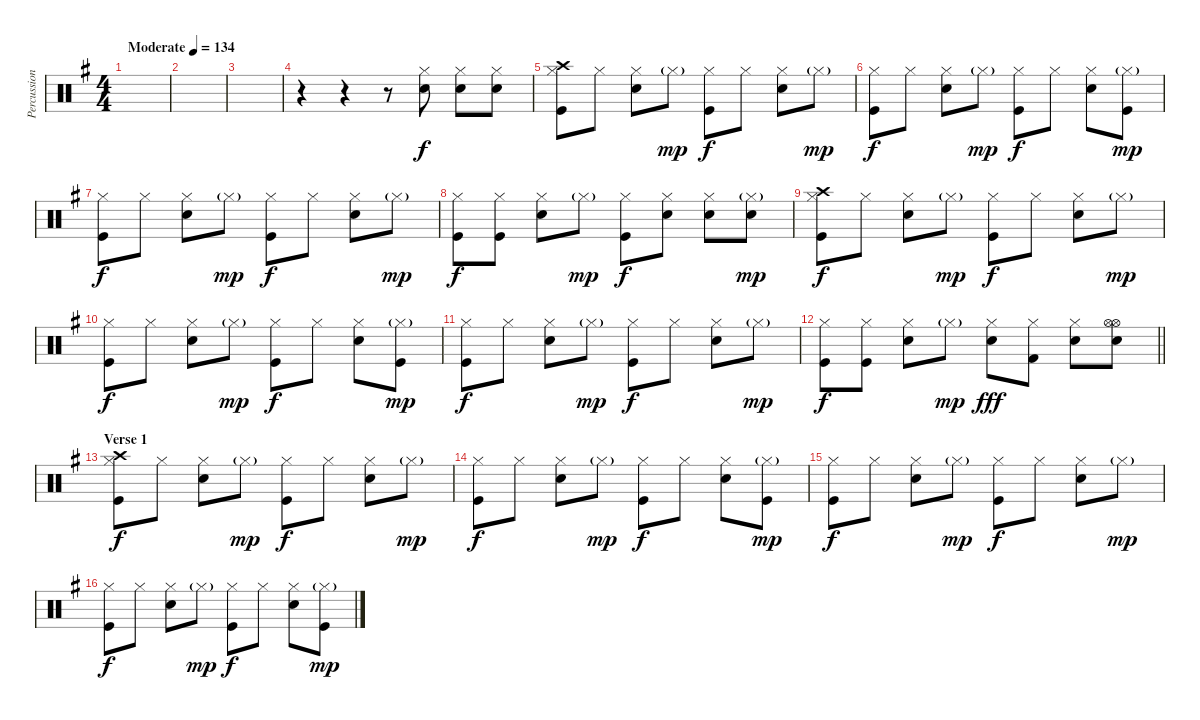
\track ("Percussion" "Percussion") {instrument percussion}
\staff {score}
\articulation defaults
\ts (4 4)
\tempo (134 "Moderate")
\clef neutral
\ks g
|
|
|
r.4 r.4 r.8 ("Hi-Hat (closed)" "Snare (hit) 2").8 ("Hi-Hat (closed)" "Snare (hit) 2").8 ("Hi-Hat (closed)" "Snare (hit) 2").8 |
("Hi-Hat (closed)" "Crash high (hit)" "Kick (hit)").8 "Hi-Hat (closed)".8 ("Hi-Hat (closed)" "Snare (hit) 2").8 "Hi-Hat (closed)"{g}.8{dy mp} ("Hi-Hat (closed)" "Kick (hit)").8{dy f} "Hi-Hat (closed)".8 ("Hi-Hat (closed)" "Snare (hit) 2").8 "Hi-Hat (closed)"{g}.8{dy mp} |
("Hi-Hat (closed)" "Kick (hit)").8{dy f} "Hi-Hat (closed)".8 ("Hi-Hat (closed)" "Snare (hit) 2").8 "Hi-Hat (closed)"{g}.8{dy mp} ("Hi-Hat (closed)" "Kick (hit)").8{dy f} "Hi-Hat (closed)".8 ("Hi-Hat (closed)" "Snare (hit) 2").8 ("Hi-Hat (closed)"{g} "Kick (hit)").8{dy mp} |
("Hi-Hat (closed)" "Kick (hit)").8{dy f} "Hi-Hat (closed)".8 ("Hi-Hat (closed)" "Snare (hit) 2").8 "Hi-Hat (closed)"{g}.8{dy mp} ("Hi-Hat (closed)" "Kick (hit)").8{dy f} "Hi-Hat (closed)".8 ("Hi-Hat (closed)" "Snare (hit) 2").8 "Hi-Hat (closed)"{g}.8{dy mp} |
("Hi-Hat (closed)" "Kick (hit)").8{dy f} ("Hi-Hat (closed)" "Kick (hit)").8 ("Hi-Hat (closed)" "Snare (hit) 2").8 "Hi-Hat (closed)"{g}.8{dy mp} ("Hi-Hat (closed)" "Kick (hit)").8{dy f} ("Hi-Hat (closed)" "Snare (hit) 2").8 ("Hi-Hat (closed)" "Snare (hit) 2").8 ("Hi-Hat (closed)"{g} "Snare (hit) 2").8{dy mp} |
("Hi-Hat (closed)" "Crash high (hit)" "Kick (hit)").8{dy f} "Hi-Hat (closed)".8 ("Hi-Hat (closed)" "Snare (hit) 2").8 "Hi-Hat (closed)"{g}.8{dy mp} ("Hi-Hat (closed)" "Kick (hit)").8{dy f} "Hi-Hat (closed)".8 ("Hi-Hat (closed)" "Snare (hit) 2").8 "Hi-Hat (closed)"{g}.8{dy mp} |
("Hi-Hat (closed)" "Kick (hit)").8{dy f} "Hi-Hat (closed)".8 ("Hi-Hat (closed)" "Snare (hit) 2").8 "Hi-Hat (closed)"{g}.8{dy mp} ("Hi-Hat (closed)" "Kick (hit)").8{dy f} "Hi-Hat (closed)".8 ("Hi-Hat (closed)" "Snare (hit) 2").8 ("Hi-Hat (closed)"{g} "Kick (hit)").8{dy mp} |
("Hi-Hat (closed)" "Kick (hit)").8{dy f} "Hi-Hat (closed)".8 ("Hi-Hat (closed)" "Snare (hit) 2").8 "Hi-Hat (closed)"{g}.8{dy mp} ("Hi-Hat (closed)" "Kick (hit)").8{dy f} "Hi-Hat (closed)".8 ("Hi-Hat (closed)" "Snare (hit) 2").8 "Hi-Hat (closed)"{g}.8{dy mp} |
\barLineRight lightlight
("Hi-Hat (closed)" "Kick (hit)").8{dy f} ("Hi-Hat (closed)" "Kick (hit)").8 ("Hi-Hat (closed)" "Snare (hit) 2").8 "Hi-Hat (closed)"{g}.8{dy mp} ("Hi-Hat (closed)" "Snare (hit) 2").8{dy fff} ("Hi-Hat (closed)" "Kick (hit) 2").8 ("Hi-Hat (closed)" "Snare (hit) 2").8 ("Hi-Hat (open)" "Snare (hit)" "Hi-Hat (open)").8 |
\section ("" "Verse 1")
("Hi-Hat (closed)" "Crash high (hit)" "Kick (hit)").8{dy f} "Hi-Hat (closed)".8 ("Hi-Hat (closed)" "Snare (hit) 2").8 "Hi-Hat (closed)"{g}.8{dy mp} ("Hi-Hat (closed)" "Kick (hit)").8{dy f} "Hi-Hat (closed)".8 ("Hi-Hat (closed)" "Snare (hit) 2").8 "Hi-Hat (closed)"{g}.8{dy mp} |
("Hi-Hat (closed)" "Kick (hit)").8{dy f} "Hi-Hat (closed)".8 ("Hi-Hat (closed)" "Snare (hit) 2").8 "Hi-Hat (closed)"{g}.8{dy mp} ("Hi-Hat (closed)" "Kick (hit)").8{dy f} "Hi-Hat (closed)".8 ("Hi-Hat (closed)" "Snare (hit) 2").8 ("Hi-Hat (closed)"{g} "Kick (hit)").8{dy mp} |
("Hi-Hat (closed)" "Kick (hit)").8{dy f} "Hi-Hat (closed)".8 ("Hi-Hat (closed)" "Snare (hit) 2").8 "Hi-Hat (closed)"{g}.8{dy mp} ("Hi-Hat (closed)" "Kick (hit)").8{dy f} "Hi-Hat (closed)".8 ("Hi-Hat (closed)" "Snare (hit) 2").8 "Hi-Hat (closed)"{g}.8{dy mp} |
("Hi-Hat (closed)" "Kick (hit)").8{dy f} "Hi-Hat (closed)".8 ("Hi-Hat (closed)" "Snare (hit) 2").8 "Hi-Hat (closed)"{g}.8{dy mp} ("Hi-Hat (closed)" "Kick (hit)").8{dy f} "Hi-Hat (closed)".8 ("Hi-Hat (closed)" "Snare (hit) 2").8 ("Hi-Hat (closed)"{g} "Kick (hit)").8{dy mp}
